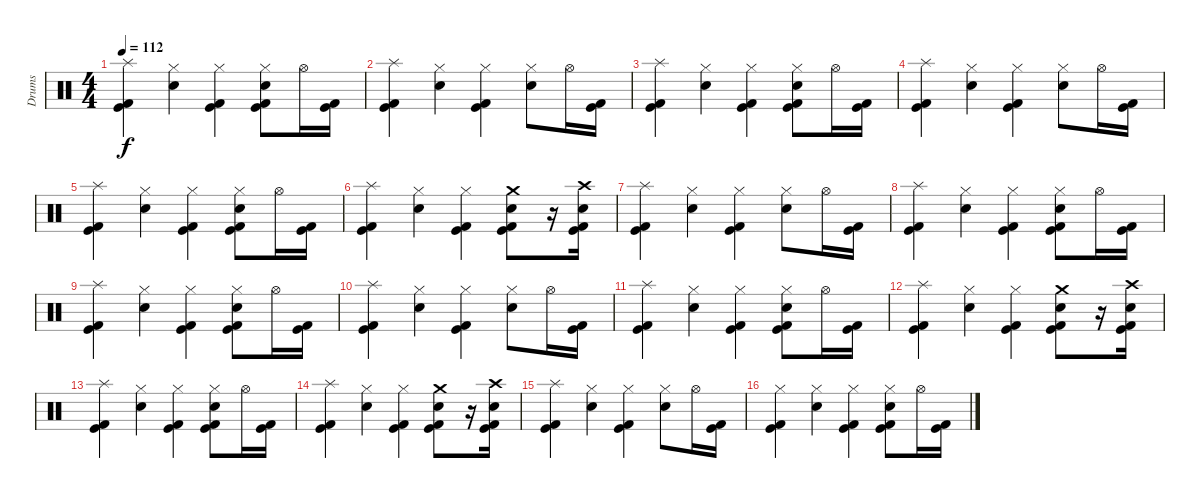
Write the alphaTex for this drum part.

\track ("Drums" "Drums") {instrument percussion}
\staff {score}
\articulation defaults
\ts (4 4)
\tempo 112
\clef neutral
\ks c
("Splash (hit)" "Kick (hit) 2" "Kick (hit)").4{dy f} ("Hi-Hat (closed)" "Electric Snare (hit)").4 ("Hi-Hat (closed)" "Kick (hit) 2" "Kick (hit)").4 ("Hi-Hat (closed)" "Electric Snare (hit)" "Kick (hit) 2" "Kick (hit)").8 "Hi-Hat (open)".16 ("Kick (hit) 2" "Kick (hit)").16 |
("Splash (hit)" "Kick (hit) 2" "Kick (hit)").4 ("Hi-Hat (closed)" "Electric Snare (hit)").4 ("Hi-Hat (closed)" "Kick (hit) 2" "Kick (hit)").4 ("Hi-Hat (closed)" "Electric Snare (hit)").8 "Hi-Hat (open)".16 ("Kick (hit) 2" "Kick (hit)").16 |
("Splash (hit)" "Kick (hit) 2" "Kick (hit)").4 ("Hi-Hat (closed)" "Electric Snare (hit)").4 ("Hi-Hat (closed)" "Kick (hit) 2" "Kick (hit)").4 ("Hi-Hat (closed)" "Electric Snare (hit)" "Kick (hit) 2" "Kick (hit)").8 "Hi-Hat (open)".16 ("Kick (hit) 2" "Kick (hit)").16 |
("Splash (hit)" "Kick (hit) 2" "Kick (hit)").4 ("Hi-Hat (closed)" "Electric Snare (hit)").4 ("Hi-Hat (closed)" "Kick (hit) 2" "Kick (hit)").4 ("Hi-Hat (closed)" "Electric Snare (hit)").8 "Hi-Hat (open)".16 ("Kick (hit) 2" "Kick (hit)").16 |
("Splash (hit)" "Kick (hit) 2" "Kick (hit)").4 ("Hi-Hat (closed)" "Electric Snare (hit)").4 ("Hi-Hat (closed)" "Kick (hit) 2" "Kick (hit)").4 ("Hi-Hat (closed)" "Electric Snare (hit)" "Kick (hit) 2" "Kick (hit)").8 "Hi-Hat (open)".16 ("Kick (hit) 2" "Kick (hit)").16 |
("Splash (hit)" "Kick (hit) 2" "Kick (hit)").4 ("Hi-Hat (closed)" "Electric Snare (hit)").4 ("Hi-Hat (closed)" "Kick (hit) 2" "Kick (hit)").4 ("Crash medium (hit)" "Electric Snare (hit)" "Kick (hit) 2" "Kick (hit)").8 r.16 ("Crash high (hit)" "Electric Snare (hit)" "Kick (hit) 2" "Kick (hit)").16 |
("Splash (hit)" "Kick (hit) 2" "Kick (hit)").4 ("Hi-Hat (closed)" "Electric Snare (hit)").4 ("Hi-Hat (closed)" "Kick (hit) 2" "Kick (hit)").4 ("Hi-Hat (closed)" "Electric Snare (hit)").8 "Hi-Hat (open)".16 ("Kick (hit) 2" "Kick (hit)").16 |
("Splash (hit)" "Kick (hit) 2" "Kick (hit)").4 ("Hi-Hat (closed)" "Electric Snare (hit)").4 ("Hi-Hat (closed)" "Kick (hit) 2" "Kick (hit)").4 ("Hi-Hat (closed)" "Electric Snare (hit)" "Kick (hit) 2" "Kick (hit)").8 "Hi-Hat (open)".16 ("Kick (hit) 2" "Kick (hit)").16 |
("Splash (hit)" "Kick (hit) 2" "Kick (hit)").4 ("Hi-Hat (closed)" "Electric Snare (hit)").4 ("Hi-Hat (closed)" "Kick (hit) 2" "Kick (hit)").4 ("Hi-Hat (closed)" "Electric Snare (hit)" "Kick (hit) 2" "Kick (hit)").8 "Hi-Hat (open)".16 ("Kick (hit) 2" "Kick (hit)").16 |
("Splash (hit)" "Kick (hit) 2" "Kick (hit)").4 ("Hi-Hat (closed)" "Electric Snare (hit)").4 ("Hi-Hat (closed)" "Kick (hit) 2" "Kick (hit)").4 ("Hi-Hat (closed)" "Electric Snare (hit)").8 "Hi-Hat (open)".16 ("Kick (hit) 2" "Kick (hit)").16 |
("Splash (hit)" "Kick (hit) 2" "Kick (hit)").4 ("Hi-Hat (closed)" "Electric Snare (hit)").4 ("Hi-Hat (closed)" "Kick (hit) 2" "Kick (hit)").4 ("Hi-Hat (closed)" "Electric Snare (hit)" "Kick (hit) 2" "Kick (hit)").8 "Hi-Hat (open)".16 ("Kick (hit) 2" "Kick (hit)").16 |
("Splash (hit)" "Kick (hit) 2" "Kick (hit)").4 ("Hi-Hat (closed)" "Electric Snare (hit)").4 ("Hi-Hat (closed)" "Kick (hit) 2" "Kick (hit)").4 ("Crash medium (hit)" "Electric Snare (hit)" "Kick (hit) 2" "Kick (hit)").8 r.16 ("Crash high (hit)" "Electric Snare (hit)" "Kick (hit) 2" "Kick (hit)").16 |
("Splash (hit)" "Kick (hit) 2" "Kick (hit)").4 ("Hi-Hat (closed)" "Electric Snare (hit)").4 ("Hi-Hat (closed)" "Kick (hit) 2" "Kick (hit)").4 ("Hi-Hat (closed)" "Electric Snare (hit)" "Kick (hit) 2" "Kick (hit)").8 "Hi-Hat (open)".16 ("Kick (hit) 2" "Kick (hit)").16 |
("Splash (hit)" "Kick (hit) 2" "Kick (hit)").4 ("Hi-Hat (closed)" "Electric Snare (hit)").4 ("Hi-Hat (closed)" "Kick (hit) 2" "Kick (hit)").4 ("Crash medium (hit)" "Electric Snare (hit)" "Kick (hit) 2" "Kick (hit)").8 r.16 ("Crash high (hit)" "Electric Snare (hit)" "Kick (hit) 2" "Kick (hit)").16 |
("Splash (hit)" "Kick (hit) 2" "Kick (hit)").4 ("Hi-Hat (closed)" "Electric Snare (hit)").4 ("Hi-Hat (closed)" "Kick (hit) 2" "Kick (hit)").4 ("Hi-Hat (closed)" "Electric Snare (hit)").8 "Hi-Hat (open)".16 ("Kick (hit) 2" "Kick (hit)").16 |
("Hi-Hat (closed)" "Kick (hit) 2" "Kick (hit)").4 ("Hi-Hat (closed)" "Electric Snare (hit)").4 ("Hi-Hat (closed)" "Kick (hit) 2" "Kick (hit)").4 ("Hi-Hat (closed)" "Electric Snare (hit)" "Kick (hit) 2" "Kick (hit)").8 "Hi-Hat (open)".16 ("Kick (hit) 2" "Kick (hit)").16
